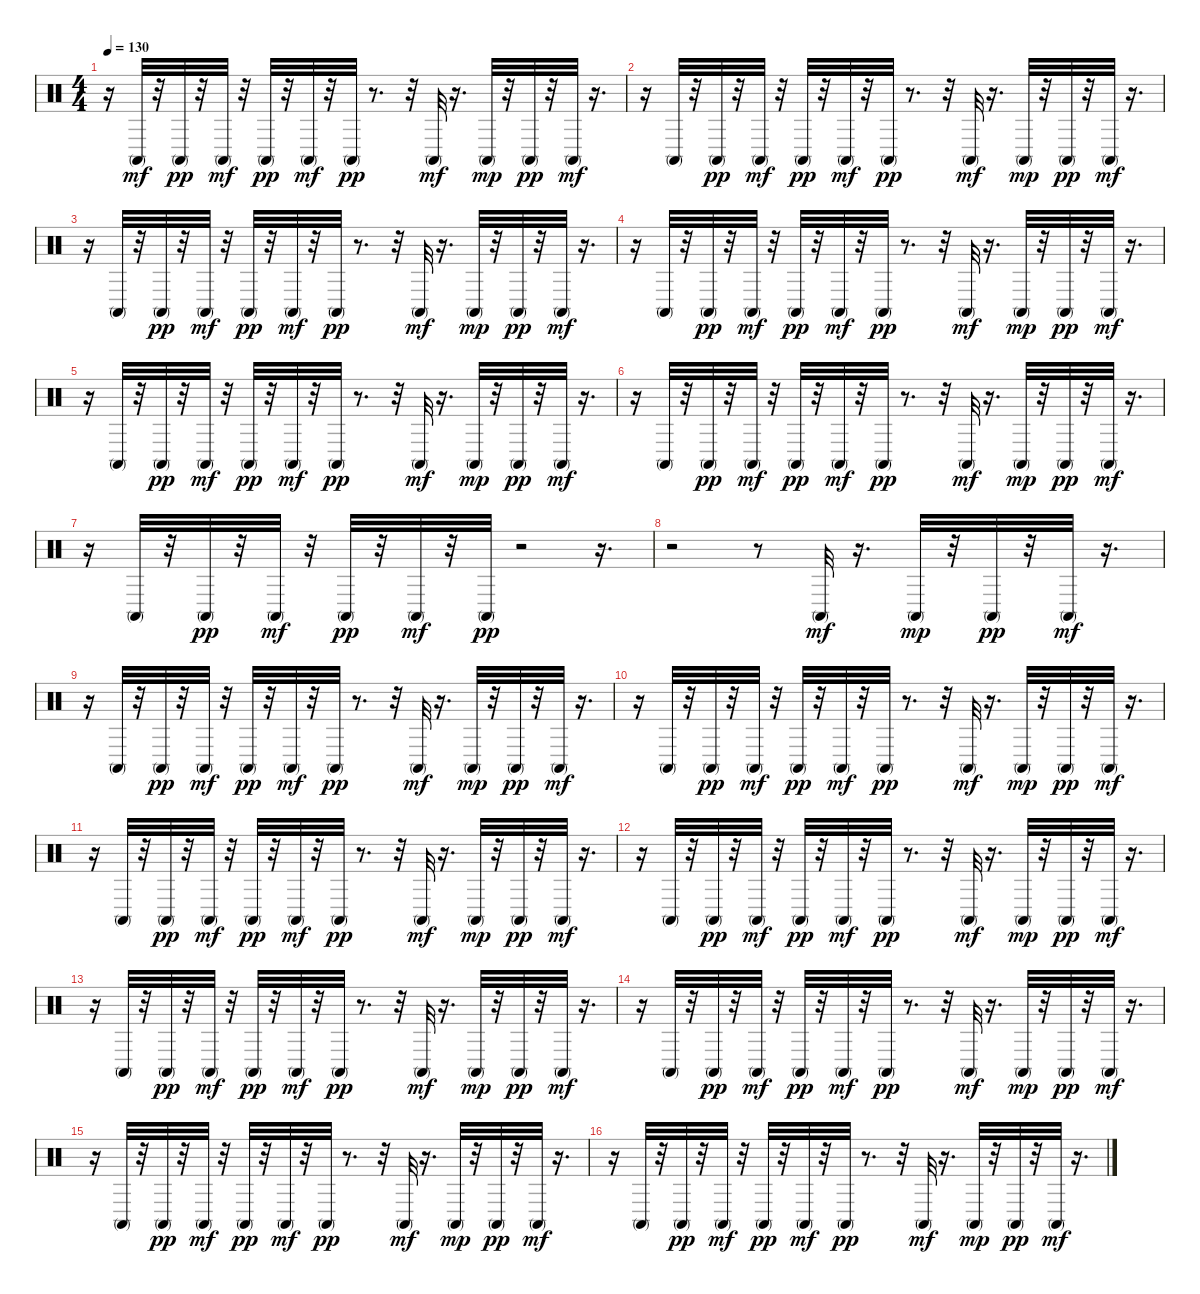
\track "" {instrument percussion}
\staff {score}
\articulation defaults
\ts (4 4)
\tempo 130
\clef neutral
\ks c
r.16{dy mf} "Conga high (mute)".32 r.32 "Conga high (mute)".32{dy pp} r.32 "Conga high (mute)".32{dy mf} r.32 "Conga high (mute)".32{dy pp} r.32 "Conga high (mute)".32{dy mf} r.32 "Conga high (mute)".32{dy pp} r.8{d} r.32 "Conga high (mute)".32{dy mf} r.16{d} "Conga high (mute)".32{dy mp} r.32 "Conga high (mute)".32{dy pp} r.32 "Conga high (mute)".32{dy mf} r.16{d} |
r.16 "Conga high (mute)".32 r.32 "Conga high (mute)".32{dy pp} r.32 "Conga high (mute)".32{dy mf} r.32 "Conga high (mute)".32{dy pp} r.32 "Conga high (mute)".32{dy mf} r.32 "Conga high (mute)".32{dy pp} r.8{d} r.32 "Conga high (mute)".32{dy mf} r.16{d} "Conga high (mute)".32{dy mp} r.32 "Conga high (mute)".32{dy pp} r.32 "Conga high (mute)".32{dy mf} r.16{d} |
r.16 "Conga high (mute)".32 r.32 "Conga high (mute)".32{dy pp} r.32 "Conga high (mute)".32{dy mf} r.32 "Conga high (mute)".32{dy pp} r.32 "Conga high (mute)".32{dy mf} r.32 "Conga high (mute)".32{dy pp} r.8{d} r.32 "Conga high (mute)".32{dy mf} r.16{d} "Conga high (mute)".32{dy mp} r.32 "Conga high (mute)".32{dy pp} r.32 "Conga high (mute)".32{dy mf} r.16{d} |
r.16 "Conga high (mute)".32 r.32 "Conga high (mute)".32{dy pp} r.32 "Conga high (mute)".32{dy mf} r.32 "Conga high (mute)".32{dy pp} r.32 "Conga high (mute)".32{dy mf} r.32 "Conga high (mute)".32{dy pp} r.8{d} r.32 "Conga high (mute)".32{dy mf} r.16{d} "Conga high (mute)".32{dy mp} r.32 "Conga high (mute)".32{dy pp} r.32 "Conga high (mute)".32{dy mf} r.16{d} |
r.16 "Conga high (mute)".32 r.32 "Conga high (mute)".32{dy pp} r.32 "Conga high (mute)".32{dy mf} r.32 "Conga high (mute)".32{dy pp} r.32 "Conga high (mute)".32{dy mf} r.32 "Conga high (mute)".32{dy pp} r.8{d} r.32 "Conga high (mute)".32{dy mf} r.16{d} "Conga high (mute)".32{dy mp} r.32 "Conga high (mute)".32{dy pp} r.32 "Conga high (mute)".32{dy mf} r.16{d} |
r.16 "Conga high (mute)".32 r.32 "Conga high (mute)".32{dy pp} r.32 "Conga high (mute)".32{dy mf} r.32 "Conga high (mute)".32{dy pp} r.32 "Conga high (mute)".32{dy mf} r.32 "Conga high (mute)".32{dy pp} r.8{d} r.32 "Conga high (mute)".32{dy mf} r.16{d} "Conga high (mute)".32{dy mp} r.32 "Conga high (mute)".32{dy pp} r.32 "Conga high (mute)".32{dy mf} r.16{d} |
r.16 "Conga high (mute)".32 r.32 "Conga high (mute)".32{dy pp} r.32 "Conga high (mute)".32{dy mf} r.32 "Conga high (mute)".32{dy pp} r.32 "Conga high (mute)".32{dy mf} r.32 "Conga high (mute)".32{dy pp} r.2 r.16{d} |
r.2 r.8 "Conga high (mute)".32{dy mf} r.16{d} "Conga high (mute)".32{dy mp} r.32 "Conga high (mute)".32{dy pp} r.32 "Conga high (mute)".32{dy mf} r.16{d} |
r.16 "Conga high (mute)".32 r.32 "Conga high (mute)".32{dy pp} r.32 "Conga high (mute)".32{dy mf} r.32 "Conga high (mute)".32{dy pp} r.32 "Conga high (mute)".32{dy mf} r.32 "Conga high (mute)".32{dy pp} r.8{d} r.32 "Conga high (mute)".32{dy mf} r.16{d} "Conga high (mute)".32{dy mp} r.32 "Conga high (mute)".32{dy pp} r.32 "Conga high (mute)".32{dy mf} r.16{d} |
r.16 "Conga high (mute)".32 r.32 "Conga high (mute)".32{dy pp} r.32 "Conga high (mute)".32{dy mf} r.32 "Conga high (mute)".32{dy pp} r.32 "Conga high (mute)".32{dy mf} r.32 "Conga high (mute)".32{dy pp} r.8{d} r.32 "Conga high (mute)".32{dy mf} r.16{d} "Conga high (mute)".32{dy mp} r.32 "Conga high (mute)".32{dy pp} r.32 "Conga high (mute)".32{dy mf} r.16{d} |
r.16 "Conga high (mute)".32 r.32 "Conga high (mute)".32{dy pp} r.32 "Conga high (mute)".32{dy mf} r.32 "Conga high (mute)".32{dy pp} r.32 "Conga high (mute)".32{dy mf} r.32 "Conga high (mute)".32{dy pp} r.8{d} r.32 "Conga high (mute)".32{dy mf} r.16{d} "Conga high (mute)".32{dy mp} r.32 "Conga high (mute)".32{dy pp} r.32 "Conga high (mute)".32{dy mf} r.16{d} |
r.16 "Conga high (mute)".32 r.32 "Conga high (mute)".32{dy pp} r.32 "Conga high (mute)".32{dy mf} r.32 "Conga high (mute)".32{dy pp} r.32 "Conga high (mute)".32{dy mf} r.32 "Conga high (mute)".32{dy pp} r.8{d} r.32 "Conga high (mute)".32{dy mf} r.16{d} "Conga high (mute)".32{dy mp} r.32 "Conga high (mute)".32{dy pp} r.32 "Conga high (mute)".32{dy mf} r.16{d} |
r.16 "Conga high (mute)".32 r.32 "Conga high (mute)".32{dy pp} r.32 "Conga high (mute)".32{dy mf} r.32 "Conga high (mute)".32{dy pp} r.32 "Conga high (mute)".32{dy mf} r.32 "Conga high (mute)".32{dy pp} r.8{d} r.32 "Conga high (mute)".32{dy mf} r.16{d} "Conga high (mute)".32{dy mp} r.32 "Conga high (mute)".32{dy pp} r.32 "Conga high (mute)".32{dy mf} r.16{d} |
r.16 "Conga high (mute)".32 r.32 "Conga high (mute)".32{dy pp} r.32 "Conga high (mute)".32{dy mf} r.32 "Conga high (mute)".32{dy pp} r.32 "Conga high (mute)".32{dy mf} r.32 "Conga high (mute)".32{dy pp} r.8{d} r.32 "Conga high (mute)".32{dy mf} r.16{d} "Conga high (mute)".32{dy mp} r.32 "Conga high (mute)".32{dy pp} r.32 "Conga high (mute)".32{dy mf} r.16{d} |
r.16 "Conga high (mute)".32 r.32 "Conga high (mute)".32{dy pp} r.32 "Conga high (mute)".32{dy mf} r.32 "Conga high (mute)".32{dy pp} r.32 "Conga high (mute)".32{dy mf} r.32 "Conga high (mute)".32{dy pp} r.8{d} r.32 "Conga high (mute)".32{dy mf} r.16{d} "Conga high (mute)".32{dy mp} r.32 "Conga high (mute)".32{dy pp} r.32 "Conga high (mute)".32{dy mf} r.16{d} |
r.16 "Conga high (mute)".32 r.32 "Conga high (mute)".32{dy pp} r.32 "Conga high (mute)".32{dy mf} r.32 "Conga high (mute)".32{dy pp} r.32 "Conga high (mute)".32{dy mf} r.32 "Conga high (mute)".32{dy pp} r.8{d} r.32 "Conga high (mute)".32{dy mf} r.16{d} "Conga high (mute)".32{dy mp} r.32 "Conga high (mute)".32{dy pp} r.32 "Conga high (mute)".32{dy mf} r.16{d}
